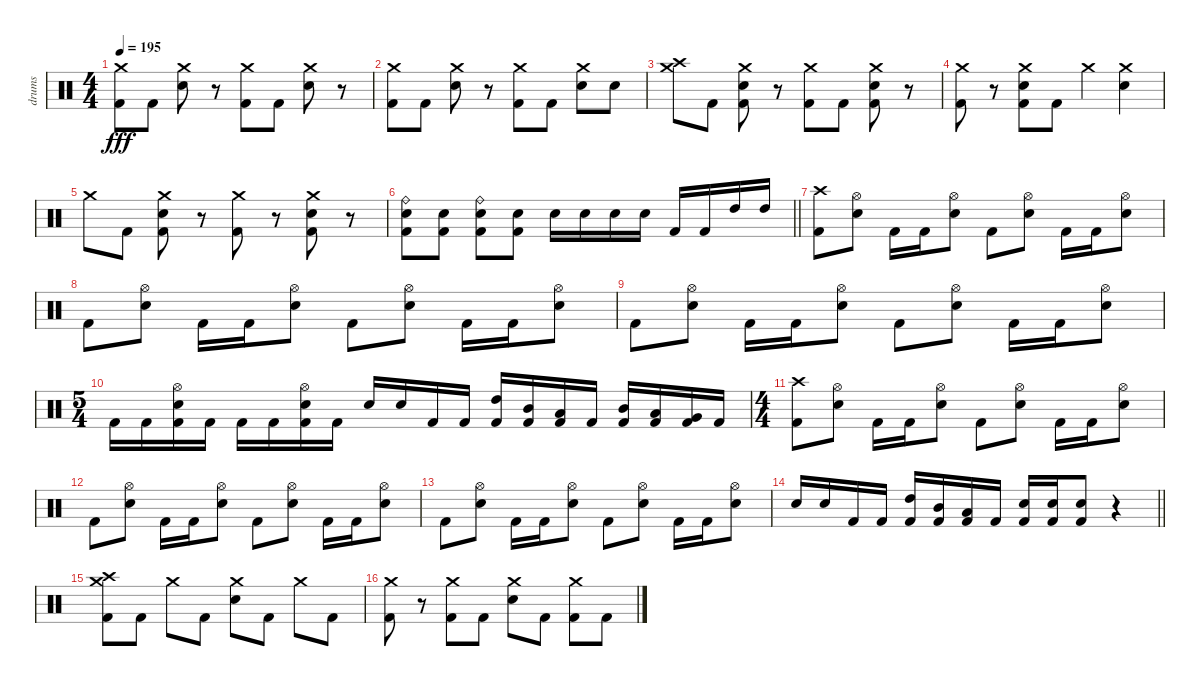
\track ("drums" "drums") {instrument percussion}
\staff {score}
\articulation defaults
\ts (4 4)
\tempo 195
\clef neutral
\ks c
("Crash medium (hit)" "Kick (hit) 2").8{dy fff} "Kick (hit) 2".8 ("Crash medium (hit)" "Electric Snare (hit)").8 r.8 ("Crash medium (hit)" "Kick (hit) 2").8 "Kick (hit) 2".8 ("Crash medium (hit)" "Electric Snare (hit)").8 r.8 |
("Crash medium (hit)" "Kick (hit) 2").8 "Kick (hit) 2".8 ("Crash medium (hit)" "Electric Snare (hit)").8 r.8 ("Crash medium (hit)" "Kick (hit) 2").8 "Kick (hit) 2".8 ("Crash medium (hit)" "Electric Snare (hit)").8 "Electric Snare (hit)".8 |
("Crash high (hit)" "Crash medium (hit)").8 "Kick (hit) 2".8 ("Crash medium (hit)" "Electric Snare (hit)" "Kick (hit) 2").8 r.8 ("Crash medium (hit)" "Kick (hit) 2").8 "Kick (hit) 2".8 ("Crash medium (hit)" "Electric Snare (hit)" "Kick (hit) 2").8 r.8 |
("Crash medium (hit)" "Kick (hit) 2").8 r.8 ("Crash medium (hit)" "Electric Snare (hit)" "Kick (hit) 2").8 "Kick (hit) 2".8 "Crash medium (hit)".4 ("Crash medium (hit)" "Electric Snare (hit)").4 |
"Crash medium (hit)".8 "Kick (hit) 2".8 ("Crash medium (hit)" "Electric Snare (hit)" "Kick (hit) 2").8 r.8 ("Crash medium (hit)" "Kick (hit) 2").8 r.8 ("Crash medium (hit)" "Electric Snare (hit)" "Kick (hit) 2").8 r.8 |
\barLineRight lightlight
("Ride (bell)" "Electric Snare (hit)" "Kick (hit) 2").8 ("Electric Snare (hit)" "Kick (hit) 2").8 ("Ride (bell)" "Electric Snare (hit)" "Kick (hit) 2").8 ("Electric Snare (hit)" "Kick (hit) 2").8 "Electric Snare (hit)".16 "Electric Snare (hit)".16 "Electric Snare (hit)".16 "Electric Snare (hit)".16 "Kick (hit) 2".16 "Kick (hit) 2".16 "High Tom (hit)".16 "High Tom (hit)".16 |
\section ("" "")
("Crash high (hit)" "Kick (hit) 2").8 ("Hi-Hat (open)" "Electric Snare (hit)").8 "Kick (hit) 2".16 "Kick (hit) 2".16 ("Hi-Hat (open)" "Electric Snare (hit)").8 "Kick (hit) 2".8 ("Hi-Hat (open)" "Electric Snare (hit)").8 "Kick (hit) 2".16 "Kick (hit) 2".16 ("Hi-Hat (open)" "Electric Snare (hit)").8 |
"Kick (hit) 2".8 ("Hi-Hat (open)" "Electric Snare (hit)").8 "Kick (hit) 2".16 "Kick (hit) 2".16 ("Hi-Hat (open)" "Electric Snare (hit)").8 "Kick (hit) 2".8 ("Hi-Hat (open)" "Electric Snare (hit)").8 "Kick (hit) 2".16 "Kick (hit) 2".16 ("Hi-Hat (open)" "Electric Snare (hit)").8 |
"Kick (hit) 2".8 ("Hi-Hat (open)" "Electric Snare (hit)").8 "Kick (hit) 2".16 "Kick (hit) 2".16 ("Hi-Hat (open)" "Electric Snare (hit)").8 "Kick (hit) 2".8 ("Hi-Hat (open)" "Electric Snare (hit)").8 "Kick (hit) 2".16 "Kick (hit) 2".16 ("Hi-Hat (open)" "Electric Snare (hit)").8 |
\ts (5 4)
"Kick (hit) 2".16 "Kick (hit) 2".16 ("Hi-Hat (open)" "Electric Snare (hit)" "Kick (hit) 2").16 "Kick (hit) 2".16 "Kick (hit) 2".16 "Kick (hit) 2".16 ("Hi-Hat (open)" "Electric Snare (hit)" "Kick (hit) 2").16 "Kick (hit) 2".16 "Electric Snare (hit)".16 "Electric Snare (hit)".16 "Kick (hit) 2".16 "Kick (hit) 2".16 ("High Tom (hit)" "Kick (hit) 2").16 ("Mid Tom (hit)" "Kick (hit) 2").16 ("Low Tom (hit)" "Kick (hit) 2").16 "Kick (hit) 2".16 ("Mid Tom (hit)" "Kick (hit) 2").16 ("Low Tom (hit)" "Kick (hit) 2").16 ("Very Low Tom (hit)" "Kick (hit) 2").16 "Kick (hit) 2".16 |
\ts (4 4)
("Crash high (hit)" "Kick (hit) 2").8 ("Hi-Hat (open)" "Electric Snare (hit)").8 "Kick (hit) 2".16 "Kick (hit) 2".16 ("Hi-Hat (open)" "Electric Snare (hit)").8 "Kick (hit) 2".8 ("Hi-Hat (open)" "Electric Snare (hit)").8 "Kick (hit) 2".16 "Kick (hit) 2".16 ("Hi-Hat (open)" "Electric Snare (hit)").8 |
"Kick (hit) 2".8 ("Hi-Hat (open)" "Electric Snare (hit)").8 "Kick (hit) 2".16 "Kick (hit) 2".16 ("Hi-Hat (open)" "Electric Snare (hit)").8 "Kick (hit) 2".8 ("Hi-Hat (open)" "Electric Snare (hit)").8 "Kick (hit) 2".16 "Kick (hit) 2".16 ("Hi-Hat (open)" "Electric Snare (hit)").8 |
"Kick (hit) 2".8 ("Hi-Hat (open)" "Electric Snare (hit)").8 "Kick (hit) 2".16 "Kick (hit) 2".16 ("Hi-Hat (open)" "Electric Snare (hit)").8 "Kick (hit) 2".8 ("Hi-Hat (open)" "Electric Snare (hit)").8 "Kick (hit) 2".16 "Kick (hit) 2".16 ("Hi-Hat (open)" "Electric Snare (hit)").8 |
\barLineRight lightlight "Electric Snare (hit)".16 "Electric Snare (hit)".16 "Kick (hit) 2".16 "Kick (hit) 2".16
("High Tom (hit)" "Kick (hit) 2").16 ("Mid Tom (hit)" "Kick (hit) 2").16 ("Low Tom (hit)" "Kick (hit) 2").16 "Kick (hit) 2".16 ("Electric Snare (hit)" "Kick (hit) 2").16 ("Electric Snare (hit)" "Kick (hit) 2").16 ("Electric Snare (hit)" "Kick (hit) 2").8 r.4 |
\section ("" "")
("Crash high (hit)" "Crash medium (hit)" "Kick (hit) 2").8 "Kick (hit) 2".8 "Crash medium (hit)".8 "Kick (hit) 2".8 ("Crash medium (hit)" "Electric Snare (hit)").8 "Kick (hit) 2".8 "Crash medium (hit)".8 "Kick (hit) 2".8 |
("Crash medium (hit)" "Kick (hit) 2").8 r.8 ("Crash medium (hit)" "Kick (hit) 2").8 "Kick (hit) 2".8 ("Crash medium (hit)" "Electric Snare (hit)").8 "Kick (hit) 2".8 ("Crash medium (hit)" "Kick (hit) 2").8 "Kick (hit) 2".8
